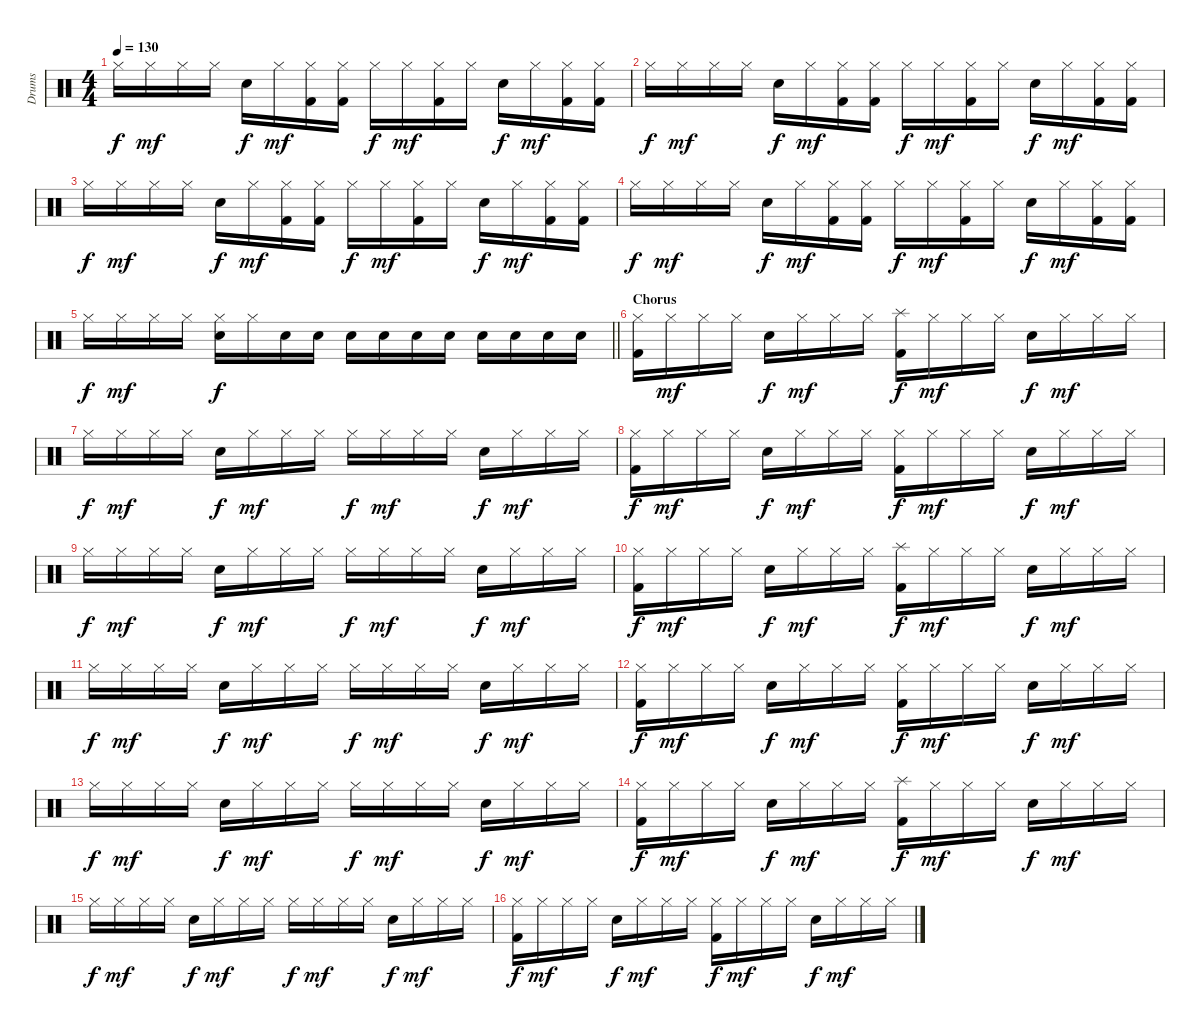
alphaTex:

\track ("Drums" "Drums") {instrument percussion}
\staff {score}
\articulation defaults
\ts (4 4)
\tempo 130
\clef neutral
\ks c "Hi-Hat (closed)".16{dy f} "Hi-Hat (closed)".16{dy mf} "Hi-Hat (closed)".16 "Hi-Hat (closed)".16 "Snare (hit) 2".16{dy f} "Hi-Hat (closed)".16{dy mf}
("Hi-Hat (closed)" "Kick (hit) 2").16 ("Hi-Hat (closed)" "Kick (hit) 2").16 "Hi-Hat (closed)".16{dy f} "Hi-Hat (closed)".16{dy mf} ("Hi-Hat (closed)" "Kick (hit) 2").16 "Hi-Hat (closed)".16 "Snare (hit) 2".16{dy f} "Hi-Hat (closed)".16{dy mf} ("Hi-Hat (closed)" "Kick (hit) 2").16 ("Hi-Hat (closed)" "Kick (hit) 2").16 |
"Hi-Hat (closed)".16{dy f} "Hi-Hat (closed)".16{dy mf} "Hi-Hat (closed)".16 "Hi-Hat (closed)".16 "Snare (hit) 2".16{dy f} "Hi-Hat (closed)".16{dy mf} ("Hi-Hat (closed)" "Kick (hit) 2").16 ("Hi-Hat (closed)" "Kick (hit) 2").16 "Hi-Hat (closed)".16{dy f} "Hi-Hat (closed)".16{dy mf} ("Hi-Hat (closed)" "Kick (hit) 2").16 "Hi-Hat (closed)".16 "Snare (hit) 2".16{dy f} "Hi-Hat (closed)".16{dy mf} ("Hi-Hat (closed)" "Kick (hit) 2").16 ("Hi-Hat (closed)" "Kick (hit) 2").16 |
"Hi-Hat (closed)".16{dy f} "Hi-Hat (closed)".16{dy mf} "Hi-Hat (closed)".16 "Hi-Hat (closed)".16 "Snare (hit) 2".16{dy f} "Hi-Hat (closed)".16{dy mf} ("Hi-Hat (closed)" "Kick (hit) 2").16 ("Hi-Hat (closed)" "Kick (hit) 2").16 "Hi-Hat (closed)".16{dy f} "Hi-Hat (closed)".16{dy mf} ("Hi-Hat (closed)" "Kick (hit) 2").16 "Hi-Hat (closed)".16 "Snare (hit) 2".16{dy f} "Hi-Hat (closed)".16{dy mf} ("Hi-Hat (closed)" "Kick (hit) 2").16 ("Hi-Hat (closed)" "Kick (hit) 2").16 |
"Hi-Hat (closed)".16{dy f} "Hi-Hat (closed)".16{dy mf} "Hi-Hat (closed)".16 "Hi-Hat (closed)".16 "Snare (hit) 2".16{dy f} "Hi-Hat (closed)".16{dy mf} ("Hi-Hat (closed)" "Kick (hit) 2").16 ("Hi-Hat (closed)" "Kick (hit) 2").16 "Hi-Hat (closed)".16{dy f} "Hi-Hat (closed)".16{dy mf} ("Hi-Hat (closed)" "Kick (hit) 2").16 "Hi-Hat (closed)".16 "Snare (hit) 2".16{dy f} "Hi-Hat (closed)".16{dy mf} ("Hi-Hat (closed)" "Kick (hit) 2").16 ("Hi-Hat (closed)" "Kick (hit) 2").16 |
\barLineRight lightlight "Hi-Hat (closed)".16{dy f} "Hi-Hat (closed)".16{dy mf} "Hi-Hat (closed)".16 "Hi-Hat (closed)".16{volume 6}
("Hi-Hat (closed)" "Snare (hit) 2").16{dy f volume 16} "Hi-Hat (closed)".16 "Snare (hit) 2".16 "Snare (hit) 2".16 "Snare (hit) 2".16 "Snare (hit) 2".16 "Snare (hit) 2".16 "Snare (hit) 2".16 "Snare (hit) 2".16 "Snare (hit) 2".16 "Snare (hit) 2".16 "Snare (hit) 2".16 |
\section ("" "Chorus")
("Hi-Hat (closed)" "Kick (hit) 2").16 "Hi-Hat (closed)".16{dy mf} "Hi-Hat (closed)".16 "Hi-Hat (closed)".16 "Snare (hit) 2".16{dy f} "Hi-Hat (closed)".16{dy mf} "Hi-Hat (closed)".16 "Hi-Hat (closed)".16 ("Splash (hit)" "Kick (hit) 2").16{dy f} "Hi-Hat (closed)".16{dy mf} "Hi-Hat (closed)".16 "Hi-Hat (closed)".16 "Snare (hit) 2".16{dy f} "Hi-Hat (closed)".16{dy mf} "Hi-Hat (closed)".16 "Hi-Hat (closed)".16 |
"Hi-Hat (closed)".16{dy f} "Hi-Hat (closed)".16{dy mf} "Hi-Hat (closed)".16 "Hi-Hat (closed)".16 "Snare (hit) 2".16{dy f} "Hi-Hat (closed)".16{dy mf} "Hi-Hat (closed)".16 "Hi-Hat (closed)".16 "Hi-Hat (closed)".16{dy f} "Hi-Hat (closed)".16{dy mf} "Hi-Hat (closed)".16 "Hi-Hat (closed)".16 "Snare (hit) 2".16{dy f} "Hi-Hat (closed)".16{dy mf} "Hi-Hat (closed)".16 "Hi-Hat (closed)".16 |
("Hi-Hat (closed)" "Kick (hit) 2").16{dy f} "Hi-Hat (closed)".16{dy mf} "Hi-Hat (closed)".16 "Hi-Hat (closed)".16 "Snare (hit) 2".16{dy f} "Hi-Hat (closed)".16{dy mf} "Hi-Hat (closed)".16 "Hi-Hat (closed)".16 ("Hi-Hat (closed)" "Kick (hit) 2").16{dy f} "Hi-Hat (closed)".16{dy mf} "Hi-Hat (closed)".16 "Hi-Hat (closed)".16 "Snare (hit) 2".16{dy f} "Hi-Hat (closed)".16{dy mf} "Hi-Hat (closed)".16 "Hi-Hat (closed)".16 |
"Hi-Hat (closed)".16{dy f} "Hi-Hat (closed)".16{dy mf} "Hi-Hat (closed)".16 "Hi-Hat (closed)".16 "Snare (hit) 2".16{dy f} "Hi-Hat (closed)".16{dy mf} "Hi-Hat (closed)".16 "Hi-Hat (closed)".16 "Hi-Hat (closed)".16{dy f} "Hi-Hat (closed)".16{dy mf} "Hi-Hat (closed)".16 "Hi-Hat (closed)".16 "Snare (hit) 2".16{dy f} "Hi-Hat (closed)".16{dy mf} "Hi-Hat (closed)".16 "Hi-Hat (closed)".16 |
("Hi-Hat (closed)" "Kick (hit) 2").16{dy f} "Hi-Hat (closed)".16{dy mf} "Hi-Hat (closed)".16 "Hi-Hat (closed)".16 "Snare (hit) 2".16{dy f} "Hi-Hat (closed)".16{dy mf} "Hi-Hat (closed)".16 "Hi-Hat (closed)".16 ("Splash (hit)" "Kick (hit) 2").16{dy f} "Hi-Hat (closed)".16{dy mf} "Hi-Hat (closed)".16 "Hi-Hat (closed)".16 "Snare (hit) 2".16{dy f} "Hi-Hat (closed)".16{dy mf} "Hi-Hat (closed)".16 "Hi-Hat (closed)".16 |
"Hi-Hat (closed)".16{dy f} "Hi-Hat (closed)".16{dy mf} "Hi-Hat (closed)".16 "Hi-Hat (closed)".16 "Snare (hit) 2".16{dy f} "Hi-Hat (closed)".16{dy mf} "Hi-Hat (closed)".16 "Hi-Hat (closed)".16 "Hi-Hat (closed)".16{dy f} "Hi-Hat (closed)".16{dy mf} "Hi-Hat (closed)".16 "Hi-Hat (closed)".16 "Snare (hit) 2".16{dy f} "Hi-Hat (closed)".16{dy mf} "Hi-Hat (closed)".16 "Hi-Hat (closed)".16 |
("Hi-Hat (closed)" "Kick (hit) 2").16{dy f} "Hi-Hat (closed)".16{dy mf} "Hi-Hat (closed)".16 "Hi-Hat (closed)".16 "Snare (hit) 2".16{dy f} "Hi-Hat (closed)".16{dy mf} "Hi-Hat (closed)".16 "Hi-Hat (closed)".16 ("Hi-Hat (closed)" "Kick (hit) 2").16{dy f} "Hi-Hat (closed)".16{dy mf} "Hi-Hat (closed)".16 "Hi-Hat (closed)".16 "Snare (hit) 2".16{dy f} "Hi-Hat (closed)".16{dy mf} "Hi-Hat (closed)".16 "Hi-Hat (closed)".16 |
"Hi-Hat (closed)".16{dy f} "Hi-Hat (closed)".16{dy mf} "Hi-Hat (closed)".16 "Hi-Hat (closed)".16 "Snare (hit) 2".16{dy f} "Hi-Hat (closed)".16{dy mf} "Hi-Hat (closed)".16 "Hi-Hat (closed)".16 "Hi-Hat (closed)".16{dy f} "Hi-Hat (closed)".16{dy mf} "Hi-Hat (closed)".16 "Hi-Hat (closed)".16 "Snare (hit) 2".16{dy f} "Hi-Hat (closed)".16{dy mf} "Hi-Hat (closed)".16 "Hi-Hat (closed)".16 |
("Hi-Hat (closed)" "Kick (hit) 2").16{dy f} "Hi-Hat (closed)".16{dy mf} "Hi-Hat (closed)".16 "Hi-Hat (closed)".16 "Snare (hit) 2".16{dy f} "Hi-Hat (closed)".16{dy mf} "Hi-Hat (closed)".16 "Hi-Hat (closed)".16 ("Splash (hit)" "Kick (hit) 2").16{dy f} "Hi-Hat (closed)".16{dy mf} "Hi-Hat (closed)".16 "Hi-Hat (closed)".16 "Snare (hit) 2".16{dy f} "Hi-Hat (closed)".16{dy mf} "Hi-Hat (closed)".16 "Hi-Hat (closed)".16 |
"Hi-Hat (closed)".16{dy f} "Hi-Hat (closed)".16{dy mf} "Hi-Hat (closed)".16 "Hi-Hat (closed)".16 "Snare (hit) 2".16{dy f} "Hi-Hat (closed)".16{dy mf} "Hi-Hat (closed)".16 "Hi-Hat (closed)".16 "Hi-Hat (closed)".16{dy f} "Hi-Hat (closed)".16{dy mf} "Hi-Hat (closed)".16 "Hi-Hat (closed)".16 "Snare (hit) 2".16{dy f} "Hi-Hat (closed)".16{dy mf} "Hi-Hat (closed)".16 "Hi-Hat (closed)".16 |
("Hi-Hat (closed)" "Kick (hit) 2").16{dy f} "Hi-Hat (closed)".16{dy mf} "Hi-Hat (closed)".16 "Hi-Hat (closed)".16 "Snare (hit) 2".16{dy f} "Hi-Hat (closed)".16{dy mf} "Hi-Hat (closed)".16 "Hi-Hat (closed)".16 ("Hi-Hat (closed)" "Kick (hit) 2").16{dy f} "Hi-Hat (closed)".16{dy mf} "Hi-Hat (closed)".16 "Hi-Hat (closed)".16 "Snare (hit) 2".16{dy f} "Hi-Hat (closed)".16{dy mf} "Hi-Hat (closed)".16 "Hi-Hat (closed)".16
